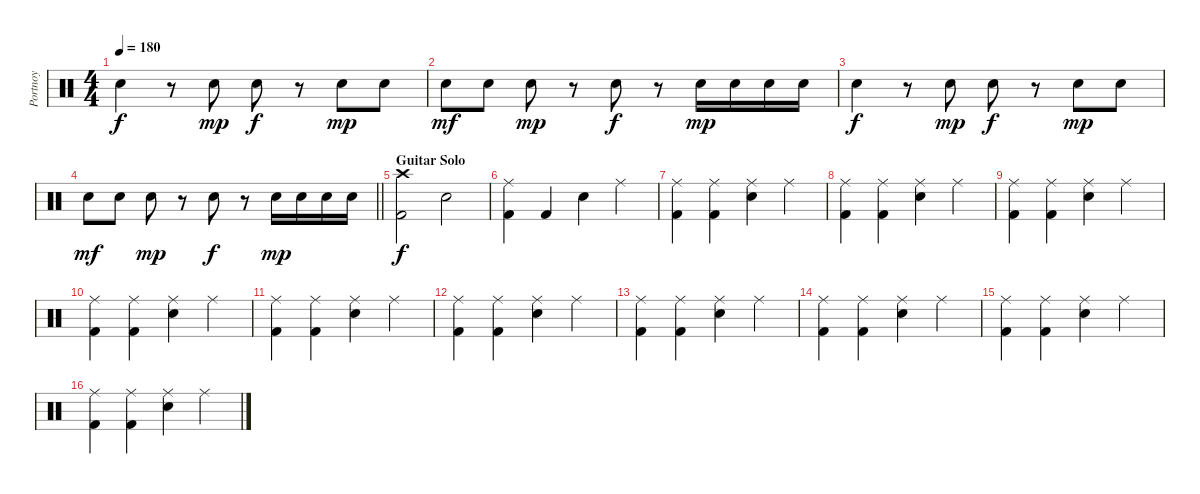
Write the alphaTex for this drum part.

\track ("Portnoy" "Portnoy") {instrument percussion}
\staff {score}
\articulation defaults
\ts (4 4)
\tempo 180
\clef neutral
\ks c "Electric Snare (hit)".4{dy f}
r.8 "Electric Snare (hit)".8{dy mp} "Electric Snare (hit)".8{dy f} r.8 "Electric Snare (hit)".8{dy mp} "Electric Snare (hit)".8 |
"Electric Snare (hit)".8{dy mf} "Electric Snare (hit)".8 "Electric Snare (hit)".8{dy mp} r.8 "Electric Snare (hit)".8{dy f} r.8 "Electric Snare (hit)".16{dy mp} "Electric Snare (hit)".16 "Electric Snare (hit)".16 "Electric Snare (hit)".16 |
"Electric Snare (hit)".4{dy f} r.8 "Electric Snare (hit)".8{dy mp} "Electric Snare (hit)".8{dy f} r.8 "Electric Snare (hit)".8{dy mp} "Electric Snare (hit)".8 |
\barLineRight lightlight "Electric Snare (hit)".8{dy mf} "Electric Snare (hit)".8 "Electric Snare (hit)".8{dy mp}
r.8 "Electric Snare (hit)".8{dy f} r.8 "Electric Snare (hit)".16{dy mp} "Electric Snare (hit)".16 "Electric Snare (hit)".16 "Electric Snare (hit)".16 |
\section ("" "Guitar Solo")
("Crash high (hit)" "Kick (hit) 2").2{dy f} "Electric Snare (hit)".2 |
("Ride (middle)" "Kick (hit) 2").4 "Kick (hit) 2".4 "Electric Snare (hit)".4 "Ride (middle)".4 |
("Ride (middle)" "Kick (hit) 2").4 ("Ride (middle)" "Kick (hit) 2").4 ("Ride (middle)" "Electric Snare (hit)").4 "Ride (middle)".4 |
("Ride (middle)" "Kick (hit) 2").4 ("Ride (middle)" "Kick (hit) 2").4 ("Ride (middle)" "Electric Snare (hit)").4 "Ride (middle)".4 |
("Ride (middle)" "Kick (hit) 2").4 ("Ride (middle)" "Kick (hit) 2").4 ("Ride (middle)" "Electric Snare (hit)").4 "Ride (middle)".4 |
("Ride (middle)" "Kick (hit) 2").4 ("Ride (middle)" "Kick (hit) 2").4 ("Ride (middle)" "Electric Snare (hit)").4 "Ride (middle)".4 |
("Ride (middle)" "Kick (hit) 2").4 ("Ride (middle)" "Kick (hit) 2").4 ("Ride (middle)" "Electric Snare (hit)").4 "Ride (middle)".4 |
("Ride (middle)" "Kick (hit) 2").4 ("Ride (middle)" "Kick (hit) 2").4 ("Ride (middle)" "Electric Snare (hit)").4 "Ride (middle)".4 |
("Ride (middle)" "Kick (hit) 2").4 ("Ride (middle)" "Kick (hit) 2").4 ("Ride (middle)" "Electric Snare (hit)").4 "Ride (middle)".4 |
("Ride (middle)" "Kick (hit) 2").4 ("Ride (middle)" "Kick (hit) 2").4 ("Ride (middle)" "Electric Snare (hit)").4 "Ride (middle)".4 |
("Ride (middle)" "Kick (hit) 2").4 ("Ride (middle)" "Kick (hit) 2").4 ("Ride (middle)" "Electric Snare (hit)").4 "Ride (middle)".4 |
("Ride (middle)" "Kick (hit) 2").4 ("Ride (middle)" "Kick (hit) 2").4 ("Ride (middle)" "Electric Snare (hit)").4 "Ride (middle)".4
